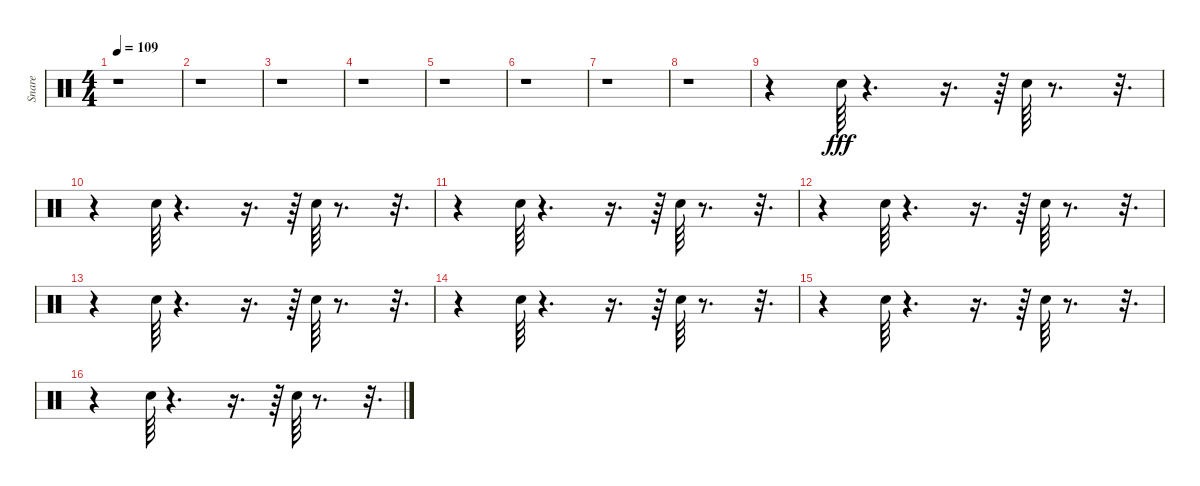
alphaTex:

\track ("Snare" "Snare") {instrument percussion}
\staff {score}
\articulation defaults
\ts (4 4)
\tempo 109
\clef neutral
\ks c
r.1{dy fff} |
r.1 |
r.1 |
r.1 |
r.1 |
r.1 |
r.1 |
r.1 |
r.4 "Electric Snare (hit)".64 r.4{d} r.16{d} r.64 "Electric Snare (hit)".64 r.8{d} r.32{d} |
r.4 "Electric Snare (hit)".64 r.4{d} r.16{d} r.64 "Electric Snare (hit)".64 r.8{d} r.32{d} |
r.4 "Electric Snare (hit)".64 r.4{d} r.16{d} r.64 "Electric Snare (hit)".64 r.8{d} r.32{d} |
r.4 "Electric Snare (hit)".64 r.4{d} r.16{d} r.64 "Electric Snare (hit)".64 r.8{d} r.32{d} |
r.4 "Electric Snare (hit)".64 r.4{d} r.16{d} r.64 "Electric Snare (hit)".64 r.8{d} r.32{d} |
r.4 "Electric Snare (hit)".64 r.4{d} r.16{d} r.64 "Electric Snare (hit)".64 r.8{d} r.32{d} |
r.4 "Electric Snare (hit)".64 r.4{d} r.16{d} r.64 "Electric Snare (hit)".64 r.8{d} r.32{d} |
r.4 "Electric Snare (hit)".64 r.4{d} r.16{d} r.64 "Electric Snare (hit)".64 r.8{d} r.32{d}
